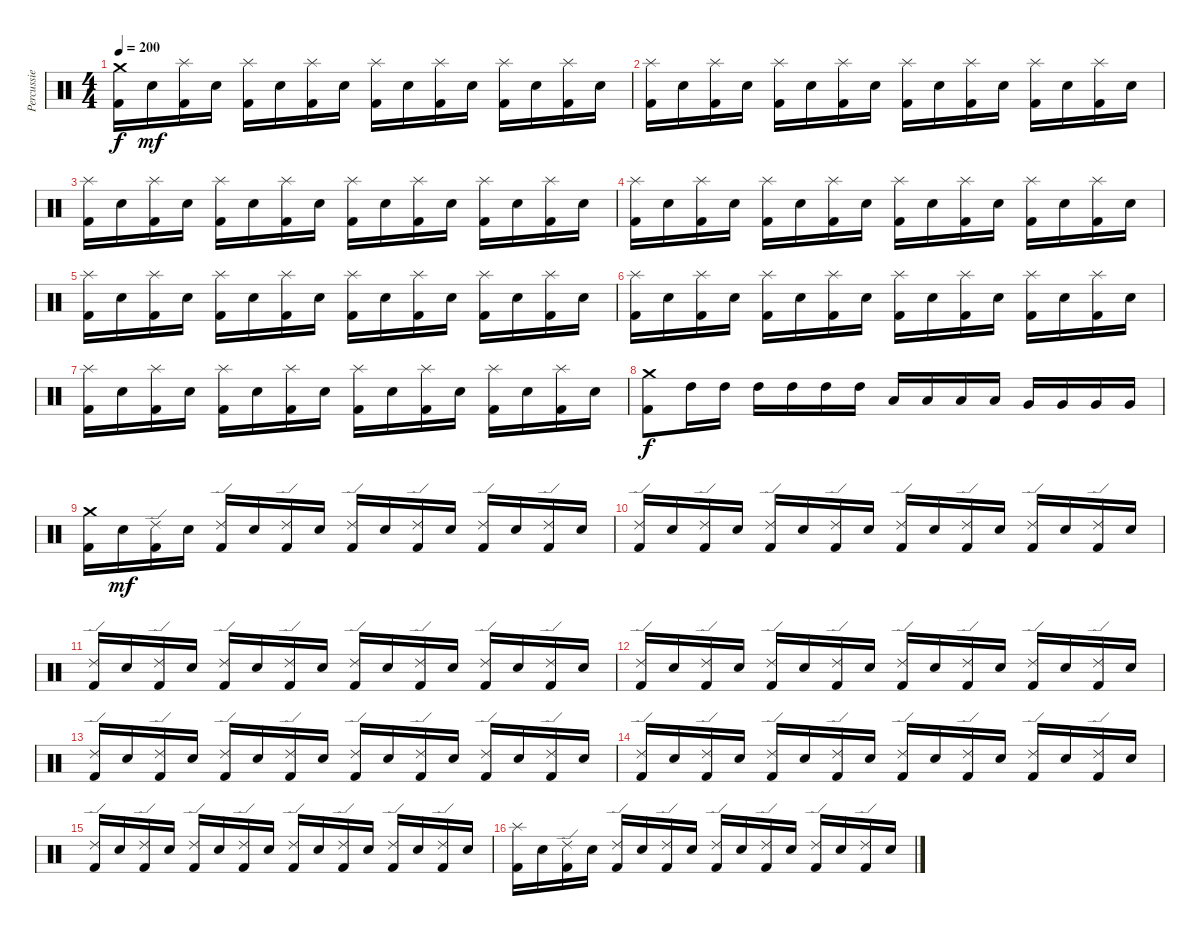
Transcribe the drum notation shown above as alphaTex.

\track ("Percussie" "Percussie") {instrument percussion}
\staff {score}
\articulation defaults
\ts (4 4)
\tempo 200
\clef neutral
\ks c
("Crash medium (hit)" "Kick (hit) 2").16{dy f} "Electric Snare (hit)".16{dy mf} ("Splash (hit)" "Kick (hit) 2").16 "Electric Snare (hit)".16 ("Splash (hit)" "Kick (hit) 2").16 "Electric Snare (hit)".16 ("Splash (hit)" "Kick (hit) 2").16 "Electric Snare (hit)".16 ("Splash (hit)" "Kick (hit) 2").16 "Electric Snare (hit)".16 ("Splash (hit)" "Kick (hit) 2").16 "Electric Snare (hit)".16 ("Splash (hit)" "Kick (hit) 2").16 "Electric Snare (hit)".16 ("Splash (hit)" "Kick (hit) 2").16 "Electric Snare (hit)".16 |
("Splash (hit)" "Kick (hit) 2").16 "Electric Snare (hit)".16 ("Splash (hit)" "Kick (hit) 2").16 "Electric Snare (hit)".16 ("Splash (hit)" "Kick (hit) 2").16 "Electric Snare (hit)".16 ("Splash (hit)" "Kick (hit) 2").16 "Electric Snare (hit)".16 ("Splash (hit)" "Kick (hit) 2").16 "Electric Snare (hit)".16 ("Splash (hit)" "Kick (hit) 2").16 "Electric Snare (hit)".16 ("Splash (hit)" "Kick (hit) 2").16 "Electric Snare (hit)".16 ("Splash (hit)" "Kick (hit) 2").16 "Electric Snare (hit)".16 |
("Splash (hit)" "Kick (hit) 2").16 "Electric Snare (hit)".16 ("Splash (hit)" "Kick (hit) 2").16 "Electric Snare (hit)".16 ("Splash (hit)" "Kick (hit) 2").16 "Electric Snare (hit)".16 ("Splash (hit)" "Kick (hit) 2").16 "Electric Snare (hit)".16 ("Splash (hit)" "Kick (hit) 2").16 "Electric Snare (hit)".16 ("Splash (hit)" "Kick (hit) 2").16 "Electric Snare (hit)".16 ("Splash (hit)" "Kick (hit) 2").16 "Electric Snare (hit)".16 ("Splash (hit)" "Kick (hit) 2").16 "Electric Snare (hit)".16 |
("Splash (hit)" "Kick (hit) 2").16 "Electric Snare (hit)".16 ("Splash (hit)" "Kick (hit) 2").16 "Electric Snare (hit)".16 ("Splash (hit)" "Kick (hit) 2").16 "Electric Snare (hit)".16 ("Splash (hit)" "Kick (hit) 2").16 "Electric Snare (hit)".16 ("Splash (hit)" "Kick (hit) 2").16 "Electric Snare (hit)".16 ("Splash (hit)" "Kick (hit) 2").16 "Electric Snare (hit)".16 ("Splash (hit)" "Kick (hit) 2").16 "Electric Snare (hit)".16 ("Splash (hit)" "Kick (hit) 2").16 "Electric Snare (hit)".16 |
("Splash (hit)" "Kick (hit) 2").16 "Electric Snare (hit)".16 ("Splash (hit)" "Kick (hit) 2").16 "Electric Snare (hit)".16 ("Splash (hit)" "Kick (hit) 2").16 "Electric Snare (hit)".16 ("Splash (hit)" "Kick (hit) 2").16 "Electric Snare (hit)".16 ("Splash (hit)" "Kick (hit) 2").16 "Electric Snare (hit)".16 ("Splash (hit)" "Kick (hit) 2").16 "Electric Snare (hit)".16 ("Splash (hit)" "Kick (hit) 2").16 "Electric Snare (hit)".16 ("Splash (hit)" "Kick (hit) 2").16 "Electric Snare (hit)".16 |
("Splash (hit)" "Kick (hit) 2").16 "Electric Snare (hit)".16 ("Splash (hit)" "Kick (hit) 2").16 "Electric Snare (hit)".16 ("Splash (hit)" "Kick (hit) 2").16 "Electric Snare (hit)".16 ("Splash (hit)" "Kick (hit) 2").16 "Electric Snare (hit)".16 ("Splash (hit)" "Kick (hit) 2").16 "Electric Snare (hit)".16 ("Splash (hit)" "Kick (hit) 2").16 "Electric Snare (hit)".16 ("Splash (hit)" "Kick (hit) 2").16 "Electric Snare (hit)".16 ("Splash (hit)" "Kick (hit) 2").16 "Electric Snare (hit)".16 |
("Splash (hit)" "Kick (hit) 2").16 "Electric Snare (hit)".16 ("Splash (hit)" "Kick (hit) 2").16 "Electric Snare (hit)".16 ("Splash (hit)" "Kick (hit) 2").16 "Electric Snare (hit)".16 ("Splash (hit)" "Kick (hit) 2").16 "Electric Snare (hit)".16 ("Splash (hit)" "Kick (hit) 2").16 "Electric Snare (hit)".16 ("Splash (hit)" "Kick (hit) 2").16 "Electric Snare (hit)".16 ("Splash (hit)" "Kick (hit) 2").16 "Electric Snare (hit)".16 ("Splash (hit)" "Kick (hit) 2").16 "Electric Snare (hit)".16 |
("Crash medium (hit)" "Kick (hit) 2").8{dy f} "High Tom (hit)".16 "High Tom (hit)".16 "High Tom (hit)".16 "High Tom (hit)".16 "High Tom (hit)".16 "High Tom (hit)".16 "Low Tom (hit)".16 "Low Tom (hit)".16 "Low Tom (hit)".16 "Low Tom (hit)".16 "Very Low Tom (hit)".16 "Very Low Tom (hit)".16 "Very Low Tom (hit)".16 "Very Low Tom (hit)".16 |
("Crash medium (hit)" "Kick (hit) 2").16 "Electric Snare (hit)".16{dy mf} ("Ride (edge) 2" "Kick (hit) 2").16 "Electric Snare (hit)".16 ("Ride (edge) 2" "Kick (hit) 2").16 "Electric Snare (hit)".16 ("Ride (edge) 2" "Kick (hit) 2").16 "Electric Snare (hit)".16 ("Ride (edge) 2" "Kick (hit) 2").16 "Electric Snare (hit)".16 ("Ride (edge) 2" "Kick (hit) 2").16 "Electric Snare (hit)".16 ("Ride (edge) 2" "Kick (hit) 2").16 "Electric Snare (hit)".16 ("Ride (edge) 2" "Kick (hit) 2").16 "Electric Snare (hit)".16 |
("Ride (edge) 2" "Kick (hit) 2").16 "Electric Snare (hit)".16 ("Ride (edge) 2" "Kick (hit) 2").16 "Electric Snare (hit)".16 ("Ride (edge) 2" "Kick (hit) 2").16 "Electric Snare (hit)".16 ("Ride (edge) 2" "Kick (hit) 2").16 "Electric Snare (hit)".16 ("Ride (edge) 2" "Kick (hit) 2").16 "Electric Snare (hit)".16 ("Ride (edge) 2" "Kick (hit) 2").16 "Electric Snare (hit)".16 ("Ride (edge) 2" "Kick (hit) 2").16 "Electric Snare (hit)".16 ("Ride (edge) 2" "Kick (hit) 2").16 "Electric Snare (hit)".16 |
("Ride (edge) 2" "Kick (hit) 2").16 "Electric Snare (hit)".16 ("Ride (edge) 2" "Kick (hit) 2").16 "Electric Snare (hit)".16 ("Ride (edge) 2" "Kick (hit) 2").16 "Electric Snare (hit)".16 ("Ride (edge) 2" "Kick (hit) 2").16 "Electric Snare (hit)".16 ("Ride (edge) 2" "Kick (hit) 2").16 "Electric Snare (hit)".16 ("Ride (edge) 2" "Kick (hit) 2").16 "Electric Snare (hit)".16 ("Ride (edge) 2" "Kick (hit) 2").16 "Electric Snare (hit)".16 ("Ride (edge) 2" "Kick (hit) 2").16 "Electric Snare (hit)".16 |
("Ride (edge) 2" "Kick (hit) 2").16 "Electric Snare (hit)".16 ("Ride (edge) 2" "Kick (hit) 2").16 "Electric Snare (hit)".16 ("Ride (edge) 2" "Kick (hit) 2").16 "Electric Snare (hit)".16 ("Ride (edge) 2" "Kick (hit) 2").16 "Electric Snare (hit)".16 ("Ride (edge) 2" "Kick (hit) 2").16 "Electric Snare (hit)".16 ("Ride (edge) 2" "Kick (hit) 2").16 "Electric Snare (hit)".16 ("Ride (edge) 2" "Kick (hit) 2").16 "Electric Snare (hit)".16 ("Ride (edge) 2" "Kick (hit) 2").16 "Electric Snare (hit)".16 |
("Ride (edge) 2" "Kick (hit) 2").16 "Electric Snare (hit)".16 ("Ride (edge) 2" "Kick (hit) 2").16 "Electric Snare (hit)".16 ("Ride (edge) 2" "Kick (hit) 2").16 "Electric Snare (hit)".16 ("Ride (edge) 2" "Kick (hit) 2").16 "Electric Snare (hit)".16 ("Ride (edge) 2" "Kick (hit) 2").16 "Electric Snare (hit)".16 ("Ride (edge) 2" "Kick (hit) 2").16 "Electric Snare (hit)".16 ("Ride (edge) 2" "Kick (hit) 2").16 "Electric Snare (hit)".16 ("Ride (edge) 2" "Kick (hit) 2").16 "Electric Snare (hit)".16 |
("Ride (edge) 2" "Kick (hit) 2").16 "Electric Snare (hit)".16 ("Ride (edge) 2" "Kick (hit) 2").16 "Electric Snare (hit)".16 ("Ride (edge) 2" "Kick (hit) 2").16 "Electric Snare (hit)".16 ("Ride (edge) 2" "Kick (hit) 2").16 "Electric Snare (hit)".16 ("Ride (edge) 2" "Kick (hit) 2").16 "Electric Snare (hit)".16 ("Ride (edge) 2" "Kick (hit) 2").16 "Electric Snare (hit)".16 ("Ride (edge) 2" "Kick (hit) 2").16 "Electric Snare (hit)".16 ("Ride (edge) 2" "Kick (hit) 2").16 "Electric Snare (hit)".16 |
("Ride (edge) 2" "Kick (hit) 2").16 "Electric Snare (hit)".16 ("Ride (edge) 2" "Kick (hit) 2").16 "Electric Snare (hit)".16 ("Ride (edge) 2" "Kick (hit) 2").16 "Electric Snare (hit)".16 ("Ride (edge) 2" "Kick (hit) 2").16 "Electric Snare (hit)".16 ("Ride (edge) 2" "Kick (hit) 2").16 "Electric Snare (hit)".16 ("Ride (edge) 2" "Kick (hit) 2").16 "Electric Snare (hit)".16 ("Ride (edge) 2" "Kick (hit) 2").16 "Electric Snare (hit)".16 ("Ride (edge) 2" "Kick (hit) 2").16 "Electric Snare (hit)".16 |
("Splash (hit)" "Kick (hit) 2").16 "Electric Snare (hit)".16 ("Ride (edge) 2" "Kick (hit) 2").16 "Electric Snare (hit)".16 ("Ride (edge) 2" "Kick (hit) 2").16 "Electric Snare (hit)".16 ("Ride (edge) 2" "Kick (hit) 2").16 "Electric Snare (hit)".16 ("Ride (edge) 2" "Kick (hit) 2").16 "Electric Snare (hit)".16 ("Ride (edge) 2" "Kick (hit) 2").16 "Electric Snare (hit)".16 ("Ride (edge) 2" "Kick (hit) 2").16 "Electric Snare (hit)".16 ("Ride (edge) 2" "Kick (hit) 2").16 "Electric Snare (hit)".16
